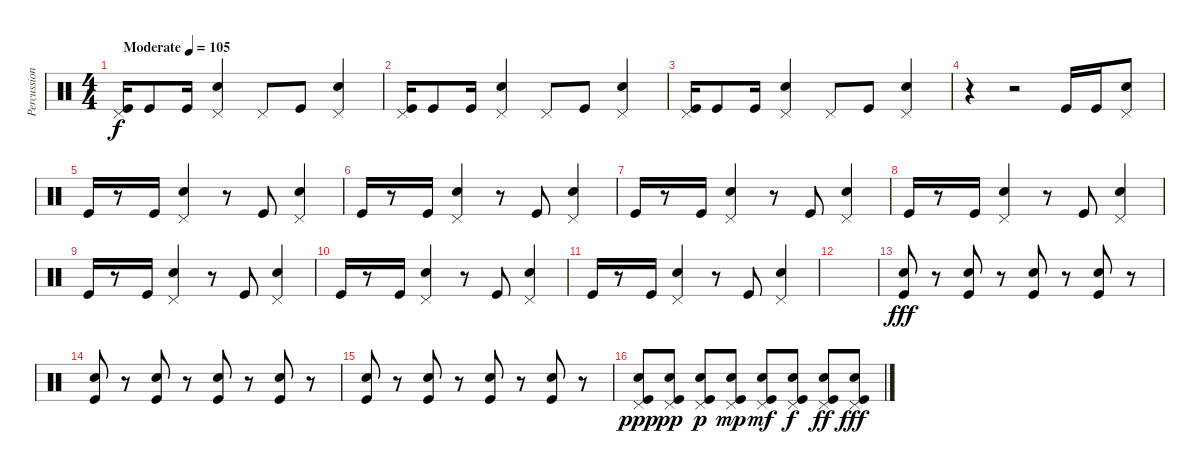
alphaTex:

\track ("Percussion" "Percussion") {instrument percussion bank 255}
\staff {score}
\articulation defaults
\ts (4 4)
\tempo (105 "Moderate")
\clef neutral
\ks c
("Pedal Hi-Hat (hit)" "Kick (hit)").16{dy f} "Kick (hit)".8 "Kick (hit)".16 ("Pedal Hi-Hat (hit)" "Snare (hit) 2").4 "Pedal Hi-Hat (hit)".8 "Kick (hit)".8 ("Pedal Hi-Hat (hit)" "Snare (hit) 2").4 |
("Pedal Hi-Hat (hit)" "Kick (hit)").16 "Kick (hit)".8 "Kick (hit)".16 ("Pedal Hi-Hat (hit)" "Snare (hit) 2").4 "Pedal Hi-Hat (hit)".8 "Kick (hit)".8 ("Pedal Hi-Hat (hit)" "Snare (hit) 2").4 |
("Pedal Hi-Hat (hit)" "Kick (hit)").16 "Kick (hit)".8 "Kick (hit)".16 ("Pedal Hi-Hat (hit)" "Snare (hit) 2").4 "Pedal Hi-Hat (hit)".8 "Kick (hit)".8 ("Pedal Hi-Hat (hit)" "Snare (hit) 2").4 |
r.4 r.2 "Kick (hit)".16 "Kick (hit)".16 ("Pedal Hi-Hat (hit)" "Snare (hit) 2").8 |
"Kick (hit)".16 r.8 "Kick (hit)".16 ("Pedal Hi-Hat (hit)" "Snare (hit) 2").4 r.8 "Kick (hit)".8 ("Pedal Hi-Hat (hit)" "Snare (hit) 2").4 |
"Kick (hit)".16 r.8 "Kick (hit)".16 ("Pedal Hi-Hat (hit)" "Snare (hit) 2").4 r.8 "Kick (hit)".8 ("Pedal Hi-Hat (hit)" "Snare (hit) 2").4 |
"Kick (hit)".16 r.8 "Kick (hit)".16 ("Pedal Hi-Hat (hit)" "Snare (hit) 2").4 r.8 "Kick (hit)".8 ("Pedal Hi-Hat (hit)" "Snare (hit) 2").4 |
"Kick (hit)".16 r.8 "Kick (hit)".16 ("Pedal Hi-Hat (hit)" "Snare (hit) 2").4 r.8 "Kick (hit)".8 ("Pedal Hi-Hat (hit)" "Snare (hit) 2").4 |
"Kick (hit)".16 r.8 "Kick (hit)".16 ("Pedal Hi-Hat (hit)" "Snare (hit) 2").4 r.8 "Kick (hit)".8 ("Pedal Hi-Hat (hit)" "Snare (hit) 2").4 |
"Kick (hit)".16 r.8 "Kick (hit)".16 ("Pedal Hi-Hat (hit)" "Snare (hit) 2").4 r.8 "Kick (hit)".8 ("Pedal Hi-Hat (hit)" "Snare (hit) 2").4 |
"Kick (hit)".16 r.8 "Kick (hit)".16 ("Pedal Hi-Hat (hit)" "Snare (hit) 2").4 r.8 "Kick (hit)".8 ("Pedal Hi-Hat (hit)" "Snare (hit) 2").4 |
|
("Snare (hit) 2" "Kick (hit)").8{dy fff} r.8 ("Snare (hit) 2" "Kick (hit)").8 r.8 ("Snare (hit) 2" "Kick (hit)").8 r.8 ("Snare (hit) 2" "Kick (hit)").8 r.8 |
("Snare (hit) 2" "Kick (hit)").8 r.8 ("Snare (hit) 2" "Kick (hit)").8 r.8 ("Snare (hit) 2" "Kick (hit)").8 r.8 ("Snare (hit) 2" "Kick (hit)").8 r.8 |
("Snare (hit) 2" "Kick (hit)").8 r.8 ("Snare (hit) 2" "Kick (hit)").8 r.8 ("Snare (hit) 2" "Kick (hit)").8 r.8 ("Snare (hit) 2" "Kick (hit)").8 r.8 |
("Pedal Hi-Hat (hit)" "Snare (hit) 2" "Kick (hit)").8{dy ppp} ("Pedal Hi-Hat (hit)" "Snare (hit) 2" "Kick (hit)").8{dy pp} ("Pedal Hi-Hat (hit)" "Snare (hit) 2" "Kick (hit)").8{dy p} ("Pedal Hi-Hat (hit)" "Snare (hit) 2" "Kick (hit)").8{dy mp} ("Pedal Hi-Hat (hit)" "Snare (hit) 2" "Kick (hit)").8{dy mf} ("Pedal Hi-Hat (hit)" "Snare (hit) 2" "Kick (hit)").8{dy f} ("Pedal Hi-Hat (hit)" "Snare (hit) 2" "Kick (hit)").8{dy ff} ("Pedal Hi-Hat (hit)" "Snare (hit) 2" "Kick (hit)").8{dy fff}
